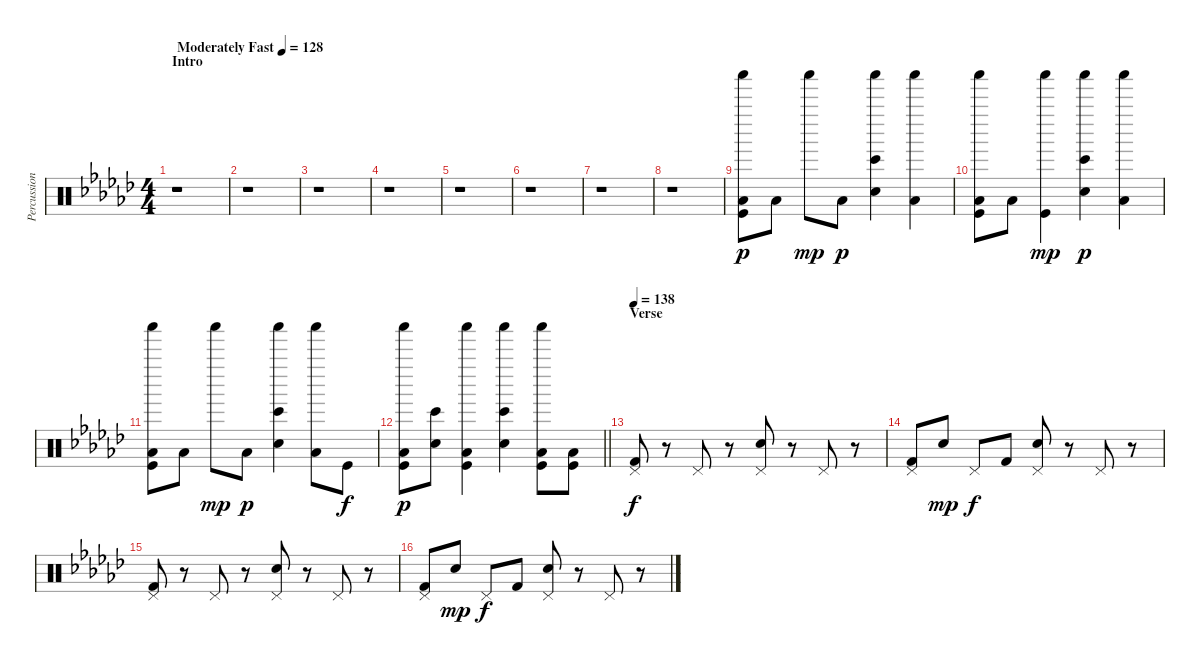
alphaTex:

\track ("Percussion" "Percussion") {instrument percussion}
\staff {score}
\articulation defaults
\ts (4 4)
\section ("" "Intro")
\tempo (128 "Moderately Fast")
\clef neutral
\ks gb
r.1{dy p} |
r.1 |
r.1 |
r.1 |
r.1 |
r.1 |
r.1 |
r.1 |
("Shaker (hit)" "Low Floor Tom (hit)" "Kick (hit)").8 "Low Floor Tom (hit)".8 "Shaker (hit)".8{dy mp} "Low Floor Tom (hit)".8{dy p} ("Shaker (hit)" "Bongo High (hit)" "Electric Snare (hit)").4 ("Shaker (hit)" "Low Floor Tom (hit)").4 |
("Shaker (hit)" "Low Floor Tom (hit)" "Kick (hit)").8 "Low Floor Tom (hit)".8 ("Shaker (hit)" "Kick (hit)").4{dy mp} ("Shaker (hit)" "Bongo High (hit)" "Electric Snare (hit)").4{dy p} ("Shaker (hit)" "Low Floor Tom (hit)").4 |
("Shaker (hit)" "Low Floor Tom (hit)" "Kick (hit)").8 "Low Floor Tom (hit)".8 "Shaker (hit)".8{dy mp} "Low Floor Tom (hit)".8{dy p} ("Shaker (hit)" "Bongo High (hit)" "Electric Snare (hit)").4 ("Shaker (hit)" "Low Floor Tom (hit)").8 "Kick (hit)".8{dy f} |
\barLineRight lightlight
("Shaker (hit)" "Low Floor Tom (hit)" "Kick (hit)").8{dy p} ("Bongo High (hit)" "Electric Snare (hit)").8 ("Shaker (hit)" "Low Floor Tom (hit)" "Kick (hit)").4 ("Shaker (hit)" "Bongo High (hit)" "Electric Snare (hit)").4 ("Shaker (hit)" "Low Floor Tom (hit)" "Kick (hit)").8 ("Low Floor Tom (hit)" "Kick (hit)").8 |
\section ("" "Verse")
\tempo 138
("Pedal Hi-Hat (hit)" "Kick (hit) 2").8{dy f} r.8 "Pedal Hi-Hat (hit)".8 r.8 ("Pedal Hi-Hat (hit)" "Electric Snare (hit)").8 r.8 "Pedal Hi-Hat (hit)".8 r.8 |
("Pedal Hi-Hat (hit)" "Kick (hit) 2").8 "Electric Snare (hit)".8{dy mp} "Pedal Hi-Hat (hit)".8{dy f} "Kick (hit) 2".8 ("Pedal Hi-Hat (hit)" "Electric Snare (hit)").8 r.8 "Pedal Hi-Hat (hit)".8 r.8 |
("Pedal Hi-Hat (hit)" "Kick (hit) 2").8 r.8 "Pedal Hi-Hat (hit)".8 r.8 ("Pedal Hi-Hat (hit)" "Electric Snare (hit)").8 r.8 "Pedal Hi-Hat (hit)".8 r.8 |
("Pedal Hi-Hat (hit)" "Kick (hit) 2").8 "Electric Snare (hit)".8{dy mp} "Pedal Hi-Hat (hit)".8{dy f} "Kick (hit) 2".8 ("Pedal Hi-Hat (hit)" "Electric Snare (hit)").8 r.8 "Pedal Hi-Hat (hit)".8 r.8
